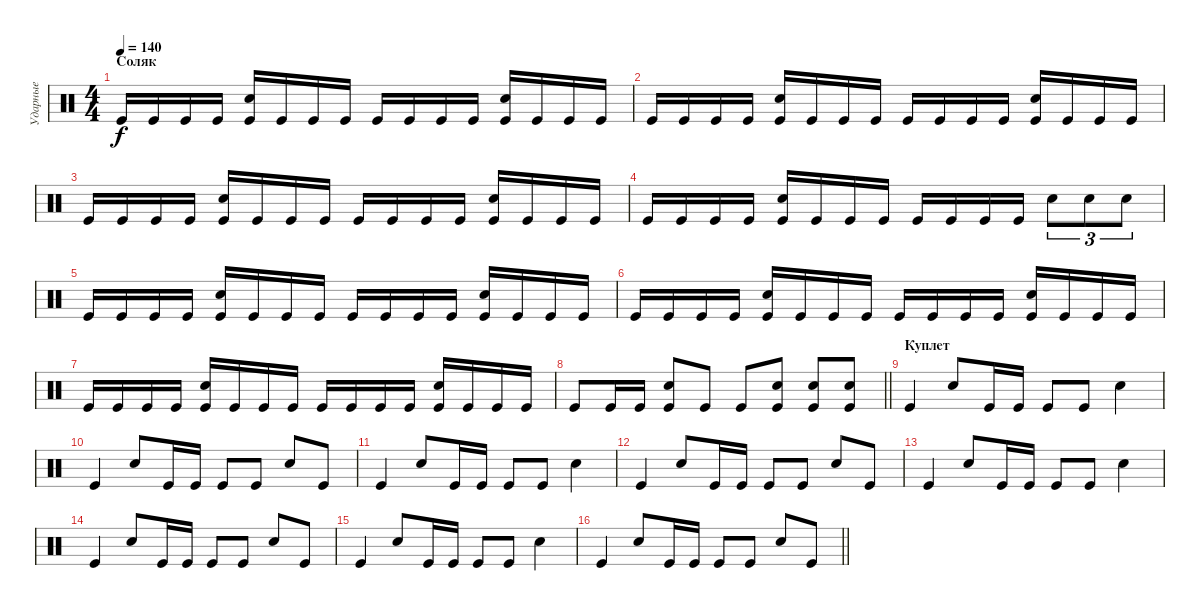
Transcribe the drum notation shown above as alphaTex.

\track ("Ударные" "Ударные") {instrument percussion}
\staff {score}
\articulation defaults
\ts (4 4)
\section ("" "Соляк")
\tempo 140
\clef neutral
\ks c "Kick (hit)".16{dy f} "Kick (hit)".16 "Kick (hit)".16 "Kick (hit)".16
("Snare (hit) 2" "Kick (hit)").16 "Kick (hit)".16 "Kick (hit)".16 "Kick (hit)".16 "Kick (hit)".16 "Kick (hit)".16 "Kick (hit)".16 "Kick (hit)".16 ("Kick (hit)" "Snare (hit) 2").16 "Kick (hit)".16 "Kick (hit)".16 "Kick (hit)".16 |
"Kick (hit)".16 "Kick (hit)".16 "Kick (hit)".16 "Kick (hit)".16 ("Snare (hit) 2" "Kick (hit)").16 "Kick (hit)".16 "Kick (hit)".16 "Kick (hit)".16 "Kick (hit)".16 "Kick (hit)".16 "Kick (hit)".16 "Kick (hit)".16 ("Kick (hit)" "Snare (hit) 2").16 "Kick (hit)".16 "Kick (hit)".16 "Kick (hit)".16 |
"Kick (hit)".16 "Kick (hit)".16 "Kick (hit)".16 "Kick (hit)".16 ("Snare (hit) 2" "Kick (hit)").16 "Kick (hit)".16 "Kick (hit)".16 "Kick (hit)".16 "Kick (hit)".16 "Kick (hit)".16 "Kick (hit)".16 "Kick (hit)".16 ("Kick (hit)" "Snare (hit) 2").16 "Kick (hit)".16 "Kick (hit)".16 "Kick (hit)".16 |
"Kick (hit)".16 "Kick (hit)".16 "Kick (hit)".16 "Kick (hit)".16 ("Snare (hit) 2" "Kick (hit)").16 "Kick (hit)".16 "Kick (hit)".16 "Kick (hit)".16 "Kick (hit)".16 "Kick (hit)".16 "Kick (hit)".16 "Kick (hit)".16 "Snare (hit) 2".8{tu (3 2)} "Snare (hit) 2".8{tu (3 2)} "Snare (hit) 2".8{tu (3 2)} |
"Kick (hit)".16 "Kick (hit)".16 "Kick (hit)".16 "Kick (hit)".16 ("Snare (hit) 2" "Kick (hit)").16 "Kick (hit)".16 "Kick (hit)".16 "Kick (hit)".16 "Kick (hit)".16 "Kick (hit)".16 "Kick (hit)".16 "Kick (hit)".16 ("Kick (hit)" "Snare (hit) 2").16 "Kick (hit)".16 "Kick (hit)".16 "Kick (hit)".16 |
"Kick (hit)".16 "Kick (hit)".16 "Kick (hit)".16 "Kick (hit)".16 ("Snare (hit) 2" "Kick (hit)").16 "Kick (hit)".16 "Kick (hit)".16 "Kick (hit)".16 "Kick (hit)".16 "Kick (hit)".16 "Kick (hit)".16 "Kick (hit)".16 ("Kick (hit)" "Snare (hit) 2").16 "Kick (hit)".16 "Kick (hit)".16 "Kick (hit)".16 |
"Kick (hit)".16 "Kick (hit)".16 "Kick (hit)".16 "Kick (hit)".16 ("Snare (hit) 2" "Kick (hit)").16 "Kick (hit)".16 "Kick (hit)".16 "Kick (hit)".16 "Kick (hit)".16 "Kick (hit)".16 "Kick (hit)".16 "Kick (hit)".16 ("Kick (hit)" "Snare (hit) 2").16 "Kick (hit)".16 "Kick (hit)".16 "Kick (hit)".16 |
\barLineRight lightlight "Kick (hit)".8 "Kick (hit)".16 "Kick (hit)".16
("Kick (hit)" "Snare (hit) 2").8 "Kick (hit)".8 "Kick (hit)".8 ("Kick (hit)" "Snare (hit) 2").8 ("Kick (hit)" "Snare (hit) 2").8 ("Kick (hit)" "Snare (hit) 2").8 |
\section ("" "Куплет")
"Kick (hit)".4 "Snare (hit) 2".8 "Kick (hit)".16 "Kick (hit)".16 "Kick (hit)".8 "Kick (hit)".8 "Snare (hit) 2".4 |
"Kick (hit)".4 "Snare (hit) 2".8 "Kick (hit)".16 "Kick (hit)".16 "Kick (hit)".8 "Kick (hit)".8 "Snare (hit) 2".8 "Kick (hit)".8 |
"Kick (hit)".4 "Snare (hit) 2".8 "Kick (hit)".16 "Kick (hit)".16 "Kick (hit)".8 "Kick (hit)".8 "Snare (hit) 2".4 |
"Kick (hit)".4 "Snare (hit) 2".8 "Kick (hit)".16 "Kick (hit)".16 "Kick (hit)".8 "Kick (hit)".8 "Snare (hit) 2".8 "Kick (hit)".8 |
"Kick (hit)".4 "Snare (hit) 2".8 "Kick (hit)".16 "Kick (hit)".16 "Kick (hit)".8 "Kick (hit)".8 "Snare (hit) 2".4 |
"Kick (hit)".4 "Snare (hit) 2".8 "Kick (hit)".16 "Kick (hit)".16 "Kick (hit)".8 "Kick (hit)".8 "Snare (hit) 2".8 "Kick (hit)".8 |
"Kick (hit)".4 "Snare (hit) 2".8 "Kick (hit)".16 "Kick (hit)".16 "Kick (hit)".8 "Kick (hit)".8 "Snare (hit) 2".4 |
\barLineRight lightlight "Kick (hit)".4 "Snare (hit) 2".8 "Kick (hit)".16 "Kick (hit)".16 "Kick (hit)".8 "Kick (hit)".8 "Snare (hit) 2".8 "Kick (hit)".8
